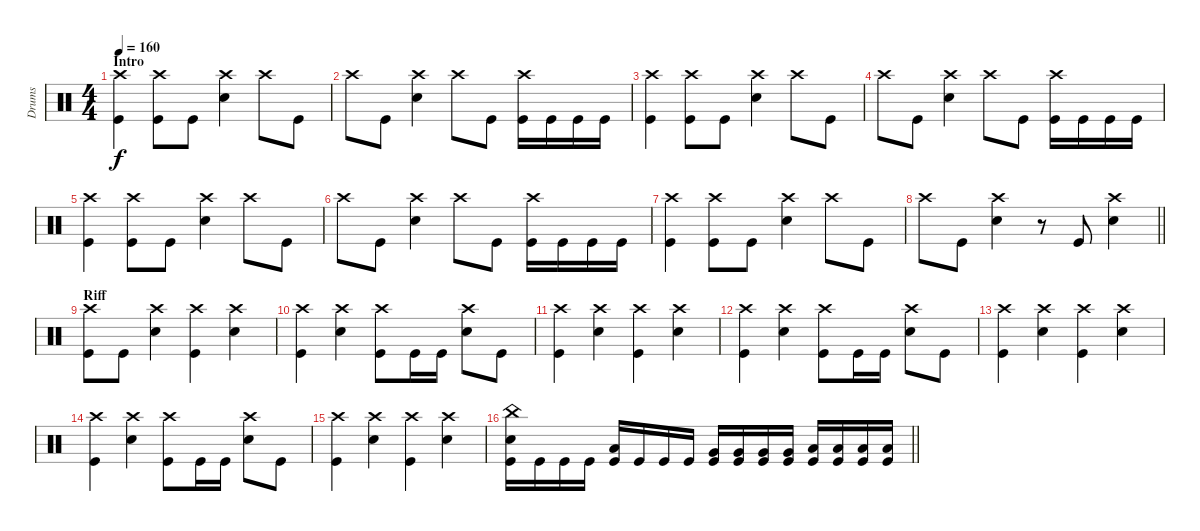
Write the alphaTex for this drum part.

\track ("Drums" "Drums") {instrument percussion}
\staff {score}
\articulation defaults
\ts (4 4)
\section ("" "Intro")
\tempo 160
\clef neutral
\ks c
("Kick (hit)" "Crash high (hit)").4{dy f} ("Kick (hit)" "Crash high (hit)").8 "Kick (hit)".8 ("Crash high (hit)" "Snare (hit) 2").4 "Crash high (hit)".8 "Kick (hit)".8 |
"Crash high (hit)".8 "Kick (hit)".8 ("Snare (hit) 2" "Crash high (hit)").4 "Crash high (hit)".8 "Kick (hit)".8 ("Kick (hit)" "Crash high (hit)").16 "Kick (hit)".16 "Kick (hit)".16 "Kick (hit)".16 |
("Kick (hit)" "Crash high (hit)").4 ("Kick (hit)" "Crash high (hit)").8 "Kick (hit)".8 ("Crash high (hit)" "Snare (hit) 2").4 "Crash high (hit)".8 "Kick (hit)".8 |
"Crash high (hit)".8 "Kick (hit)".8 ("Snare (hit) 2" "Crash high (hit)").4 "Crash high (hit)".8 "Kick (hit)".8 ("Kick (hit)" "Crash high (hit)").16 "Kick (hit)".16 "Kick (hit)".16 "Kick (hit)".16 |
("Kick (hit)" "Crash high (hit)").4 ("Kick (hit)" "Crash high (hit)").8 "Kick (hit)".8 ("Crash high (hit)" "Snare (hit) 2").4 "Crash high (hit)".8 "Kick (hit)".8 |
"Crash high (hit)".8 "Kick (hit)".8 ("Snare (hit) 2" "Crash high (hit)").4 "Crash high (hit)".8 "Kick (hit)".8 ("Kick (hit)" "Crash high (hit)").16 "Kick (hit)".16 "Kick (hit)".16 "Kick (hit)".16 |
("Kick (hit)" "Crash high (hit)").4 ("Kick (hit)" "Crash high (hit)").8 "Kick (hit)".8 ("Crash high (hit)" "Snare (hit) 2").4 "Crash high (hit)".8 "Kick (hit)".8 |
\barLineRight lightlight "Crash high (hit)".8 "Kick (hit)".8
("Snare (hit) 2" "Crash high (hit)").4 r.8 "Kick (hit)".8 ("Snare (hit) 2" "Crash high (hit)").4 |
\section ("" "Riff")
("Kick (hit)" "Crash high (hit)").8 "Kick (hit)".8 ("Snare (hit) 2" "Crash high (hit)").4 ("Kick (hit)" "Crash high (hit)").4 ("Snare (hit) 2" "Crash high (hit)").4 |
("Kick (hit)" "Crash high (hit)").4 ("Snare (hit) 2" "Crash high (hit)").4 ("Kick (hit)" "Crash high (hit)").8 "Kick (hit)".16 "Kick (hit)".16 ("Snare (hit) 2" "Crash high (hit)").8 "Kick (hit)".8 |
("Kick (hit)" "Crash high (hit)").4 ("Snare (hit) 2" "Crash high (hit)").4 ("Kick (hit)" "Crash high (hit)").4 ("Snare (hit) 2" "Crash high (hit)").4 |
("Kick (hit)" "Crash high (hit)").4 ("Snare (hit) 2" "Crash high (hit)").4 ("Kick (hit)" "Crash high (hit)").8 "Kick (hit)".16 "Kick (hit)".16 ("Snare (hit) 2" "Crash high (hit)").8 "Kick (hit)".8 |
("Kick (hit)" "Crash high (hit)").4 ("Snare (hit) 2" "Crash high (hit)").4 ("Kick (hit)" "Crash high (hit)").4 ("Snare (hit) 2" "Crash high (hit)").4 |
("Kick (hit)" "Crash high (hit)").4 ("Snare (hit) 2" "Crash high (hit)").4 ("Kick (hit)" "Crash high (hit)").8 "Kick (hit)".16 "Kick (hit)".16 ("Snare (hit) 2" "Crash high (hit)").8 "Kick (hit)".8 |
("Kick (hit)" "Crash high (hit)").4 ("Snare (hit) 2" "Crash high (hit)").4 ("Kick (hit)" "Crash high (hit)").4 ("Snare (hit) 2" "Crash high (hit)").4 |
\barLineRight lightlight
("Kick (hit)" "China (hit)" "Snare (hit) 2").16 "Kick (hit)".16 "Kick (hit)".16 "Kick (hit)".16 ("Kick (hit)" "Low Tom (hit)").16 "Kick (hit)".16 "Kick (hit)".16 "Kick (hit)".16 ("Kick (hit)" "Very Low Tom (hit)").16 ("Kick (hit)" "Very Low Tom (hit)").16 ("Kick (hit)" "Very Low Tom (hit)").16 ("Kick (hit)" "Very Low Tom (hit)").16 ("Kick (hit)" "Low Floor Tom (hit)").16 ("Kick (hit)" "Low Floor Tom (hit)").16 ("Kick (hit)" "Low Floor Tom (hit)").16 ("Kick (hit)" "Low Floor Tom (hit)").16
